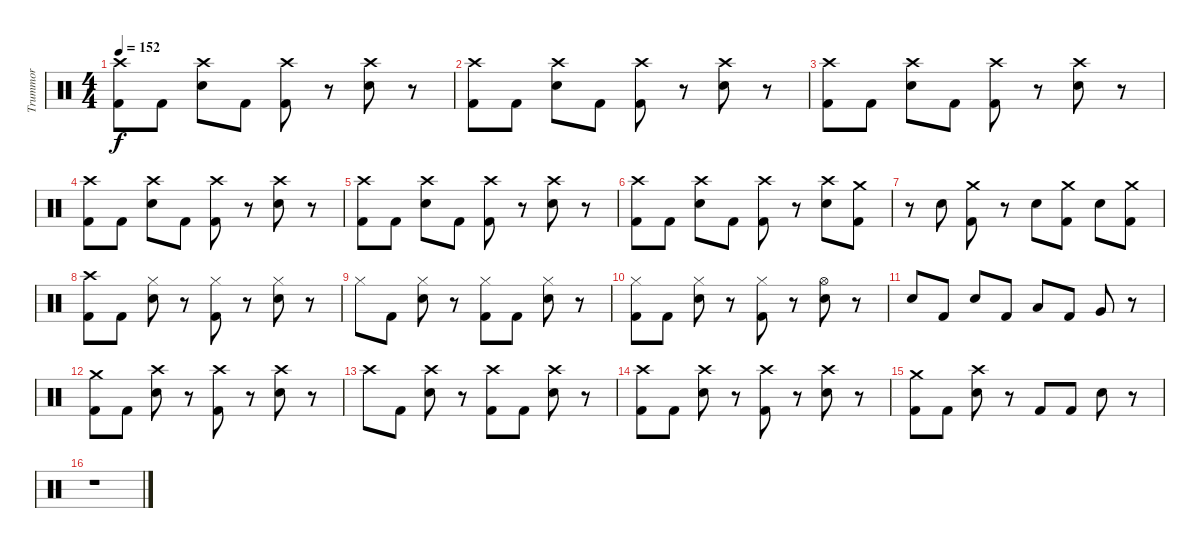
\track ("Trummor" "Trummor") {instrument percussion}
\staff {score}
\articulation defaults
\ts (4 4)
\tempo 152
\clef neutral
\ks c
("Kick (hit) 2" "Crash high (hit)").8{dy f} "Kick (hit) 2".8 ("Electric Snare (hit)" "Crash high (hit)").8 "Kick (hit) 2".8 ("Kick (hit) 2" "Crash high (hit)").8 r.8 ("Electric Snare (hit)" "Crash high (hit)").8 r.8 |
("Kick (hit) 2" "Crash high (hit)").8 "Kick (hit) 2".8 ("Electric Snare (hit)" "Crash high (hit)").8 "Kick (hit) 2".8 ("Kick (hit) 2" "Crash high (hit)").8 r.8 ("Electric Snare (hit)" "Crash high (hit)").8 r.8 |
("Kick (hit) 2" "Crash high (hit)").8 "Kick (hit) 2".8 ("Electric Snare (hit)" "Crash high (hit)").8 "Kick (hit) 2".8 ("Kick (hit) 2" "Crash high (hit)").8 r.8 ("Electric Snare (hit)" "Crash high (hit)").8 r.8 |
("Kick (hit) 2" "Crash high (hit)").8 "Kick (hit) 2".8 ("Electric Snare (hit)" "Crash high (hit)").8 "Kick (hit) 2".8 ("Kick (hit) 2" "Crash high (hit)").8 r.8 ("Electric Snare (hit)" "Crash high (hit)").8 r.8 |
("Kick (hit) 2" "Crash high (hit)").8 "Kick (hit) 2".8 ("Electric Snare (hit)" "Crash high (hit)").8 "Kick (hit) 2".8 ("Kick (hit) 2" "Crash high (hit)").8 r.8 ("Electric Snare (hit)" "Crash high (hit)").8 r.8 |
("Kick (hit) 2" "Crash high (hit)").8 "Kick (hit) 2".8 ("Crash high (hit)" "Electric Snare (hit)").8 "Kick (hit) 2".8 ("Kick (hit) 2" "Crash high (hit)").8 r.8 ("Crash high (hit)" "Electric Snare (hit)").8 ("Kick (hit) 2" "Crash medium (hit)").8 |
r.8 "Electric Snare (hit)".8 ("Kick (hit) 2" "Crash medium (hit)").8 r.8 "Electric Snare (hit)".8 ("Kick (hit) 2" "Crash medium (hit)").8 "Electric Snare (hit)".8 ("Kick (hit) 2" "Crash medium (hit)").8 |
("Kick (hit) 2" "Crash high (hit)").8 "Kick (hit) 2".8 ("Electric Snare (hit)" "Hi-Hat (closed)").8 r.8 ("Kick (hit) 2" "Hi-Hat (closed)").8 r.8 ("Electric Snare (hit)" "Hi-Hat (closed)").8 r.8 |
"Hi-Hat (closed)".8 "Kick (hit) 2".8 ("Electric Snare (hit)" "Hi-Hat (closed)").8 r.8 ("Kick (hit) 2" "Hi-Hat (closed)").8 "Kick (hit) 2".8 ("Electric Snare (hit)" "Hi-Hat (closed)").8 r.8 |
("Kick (hit) 2" "Hi-Hat (closed)").8 "Kick (hit) 2".8 ("Electric Snare (hit)" "Hi-Hat (closed)").8 r.8 ("Kick (hit) 2" "Hi-Hat (closed)").8 r.8 ("Electric Snare (hit)" "Hi-Hat (open)").8 r.8 |
"Electric Snare (hit)".8 "Kick (hit) 2".8 "Electric Snare (hit)".8 "Kick (hit) 2".8 "Low Tom (hit)".8 "Kick (hit) 2".8 "Very Low Tom (hit)".8 r.8 |
("Kick (hit) 2" "Crash medium (hit)").8 "Kick (hit) 2".8 ("Electric Snare (hit)" "Crash high (hit)").8 r.8 ("Kick (hit) 2" "Crash high (hit)").8 r.8 ("Electric Snare (hit)" "Crash high (hit)").8 r.8 |
"Crash high (hit)".8 "Kick (hit) 2".8 ("Electric Snare (hit)" "Crash high (hit)").8 r.8 ("Kick (hit) 2" "Crash high (hit)").8 "Kick (hit) 2".8 ("Electric Snare (hit)" "Crash high (hit)").8 r.8 |
("Kick (hit) 2" "Crash high (hit)").8 "Kick (hit) 2".8 ("Electric Snare (hit)" "Crash high (hit)").8 r.8 ("Kick (hit) 2" "Crash high (hit)").8 r.8 ("Electric Snare (hit)" "Crash high (hit)").8 r.8 |
("Kick (hit) 2" "Crash medium (hit)").8 "Kick (hit) 2".8 ("Electric Snare (hit)" "Crash high (hit)").8 r.8 "Kick (hit) 2".8 "Kick (hit) 2".8 "Electric Snare (hit)".8 r.8 |
r.1
